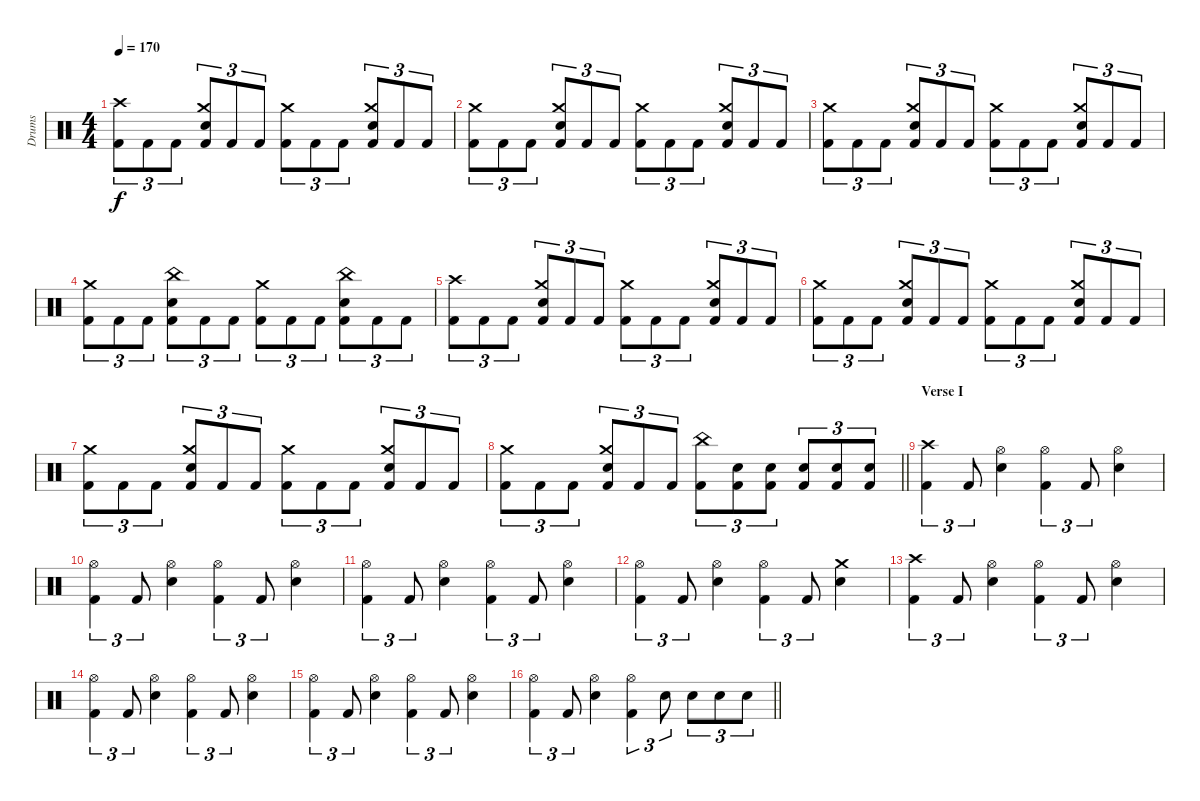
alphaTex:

\track ("Drums" "Drums") {instrument percussion}
\staff {score}
\articulation defaults
\ts (4 4)
\tempo 170
\clef neutral
\ks c
("Crash high (hit)" "Kick (hit) 2").8{tu (3 2) dy f} "Kick (hit) 2".8{tu (3 2)} "Kick (hit) 2".8{tu (3 2)} ("Crash medium (hit)" "Electric Snare (hit)" "Kick (hit) 2").8{tu (3 2)} "Kick (hit) 2".8{tu (3 2)} "Kick (hit) 2".8{tu (3 2)} ("Crash medium (hit)" "Kick (hit) 2").8{tu (3 2)} "Kick (hit) 2".8{tu (3 2)} "Kick (hit) 2".8{tu (3 2)} ("Crash medium (hit)" "Electric Snare (hit)" "Kick (hit) 2").8{tu (3 2)} "Kick (hit) 2".8{tu (3 2)} "Kick (hit) 2".8{tu (3 2)} |
("Crash medium (hit)" "Kick (hit) 2").8{tu (3 2)} "Kick (hit) 2".8{tu (3 2)} "Kick (hit) 2".8{tu (3 2)} ("Crash medium (hit)" "Electric Snare (hit)" "Kick (hit) 2").8{tu (3 2)} "Kick (hit) 2".8{tu (3 2)} "Kick (hit) 2".8{tu (3 2)} ("Crash medium (hit)" "Kick (hit) 2").8{tu (3 2)} "Kick (hit) 2".8{tu (3 2)} "Kick (hit) 2".8{tu (3 2)} ("Crash medium (hit)" "Electric Snare (hit)" "Kick (hit) 2").8{tu (3 2)} "Kick (hit) 2".8{tu (3 2)} "Kick (hit) 2".8{tu (3 2)} |
("Crash medium (hit)" "Kick (hit) 2").8{tu (3 2)} "Kick (hit) 2".8{tu (3 2)} "Kick (hit) 2".8{tu (3 2)} ("Crash medium (hit)" "Electric Snare (hit)" "Kick (hit) 2").8{tu (3 2)} "Kick (hit) 2".8{tu (3 2)} "Kick (hit) 2".8{tu (3 2)} ("Crash medium (hit)" "Kick (hit) 2").8{tu (3 2)} "Kick (hit) 2".8{tu (3 2)} "Kick (hit) 2".8{tu (3 2)} ("Crash medium (hit)" "Electric Snare (hit)" "Kick (hit) 2").8{tu (3 2)} "Kick (hit) 2".8{tu (3 2)} "Kick (hit) 2".8{tu (3 2)} |
("Crash medium (hit)" "Kick (hit) 2").8{tu (3 2)} "Kick (hit) 2".8{tu (3 2)} "Kick (hit) 2".8{tu (3 2)} ("China (hit)" "Electric Snare (hit)" "Kick (hit) 2").8{tu (3 2)} "Kick (hit) 2".8{tu (3 2)} "Kick (hit) 2".8{tu (3 2)} ("Crash medium (hit)" "Kick (hit) 2").8{tu (3 2)} "Kick (hit) 2".8{tu (3 2)} "Kick (hit) 2".8{tu (3 2)} ("China (hit)" "Electric Snare (hit)" "Kick (hit) 2").8{tu (3 2)} "Kick (hit) 2".8{tu (3 2)} "Kick (hit) 2".8{tu (3 2)} |
("Crash high (hit)" "Kick (hit) 2").8{tu (3 2)} "Kick (hit) 2".8{tu (3 2)} "Kick (hit) 2".8{tu (3 2)} ("Crash medium (hit)" "Electric Snare (hit)" "Kick (hit) 2").8{tu (3 2)} "Kick (hit) 2".8{tu (3 2)} "Kick (hit) 2".8{tu (3 2)} ("Crash medium (hit)" "Kick (hit) 2").8{tu (3 2)} "Kick (hit) 2".8{tu (3 2)} "Kick (hit) 2".8{tu (3 2)} ("Crash medium (hit)" "Electric Snare (hit)" "Kick (hit) 2").8{tu (3 2)} "Kick (hit) 2".8{tu (3 2)} "Kick (hit) 2".8{tu (3 2)} |
("Crash medium (hit)" "Kick (hit) 2").8{tu (3 2)} "Kick (hit) 2".8{tu (3 2)} "Kick (hit) 2".8{tu (3 2)} ("Crash medium (hit)" "Electric Snare (hit)" "Kick (hit) 2").8{tu (3 2)} "Kick (hit) 2".8{tu (3 2)} "Kick (hit) 2".8{tu (3 2)} ("Crash medium (hit)" "Kick (hit) 2").8{tu (3 2)} "Kick (hit) 2".8{tu (3 2)} "Kick (hit) 2".8{tu (3 2)} ("Crash medium (hit)" "Electric Snare (hit)" "Kick (hit) 2").8{tu (3 2)} "Kick (hit) 2".8{tu (3 2)} "Kick (hit) 2".8{tu (3 2)} |
("Crash medium (hit)" "Kick (hit) 2").8{tu (3 2)} "Kick (hit) 2".8{tu (3 2)} "Kick (hit) 2".8{tu (3 2)} ("Crash medium (hit)" "Electric Snare (hit)" "Kick (hit) 2").8{tu (3 2)} "Kick (hit) 2".8{tu (3 2)} "Kick (hit) 2".8{tu (3 2)} ("Crash medium (hit)" "Kick (hit) 2").8{tu (3 2)} "Kick (hit) 2".8{tu (3 2)} "Kick (hit) 2".8{tu (3 2)} ("Crash medium (hit)" "Electric Snare (hit)" "Kick (hit) 2").8{tu (3 2)} "Kick (hit) 2".8{tu (3 2)} "Kick (hit) 2".8{tu (3 2)} |
\barLineRight lightlight
("Crash medium (hit)" "Kick (hit) 2").8{tu (3 2)} "Kick (hit) 2".8{tu (3 2)} "Kick (hit) 2".8{tu (3 2)} ("Crash medium (hit)" "Electric Snare (hit)" "Kick (hit) 2").8{tu (3 2)} "Kick (hit) 2".8{tu (3 2)} "Kick (hit) 2".8{tu (3 2)} ("China (hit)" "Kick (hit) 2").8{tu (3 2)} ("Electric Snare (hit)" "Kick (hit) 2").8{tu (3 2)} ("Electric Snare (hit)" "Kick (hit) 2").8{tu (3 2)} ("Electric Snare (hit)" "Kick (hit) 2").8{tu (3 2)} ("Electric Snare (hit)" "Kick (hit) 2").8{tu (3 2)} ("Electric Snare (hit)" "Kick (hit) 2").8{tu (3 2)} |
\section ("" "Verse I")
("Crash high (hit)" "Kick (hit) 2").4{tu (3 2)} "Kick (hit) 2".8{tu (3 2)} ("Hi-Hat (open)" "Electric Snare (hit)").4 ("Hi-Hat (open)" "Kick (hit) 2").4{tu (3 2)} "Kick (hit) 2".8{tu (3 2)} ("Hi-Hat (open)" "Electric Snare (hit)").4 |
("Hi-Hat (open)" "Kick (hit) 2").4{tu (3 2)} "Kick (hit) 2".8{tu (3 2)} ("Hi-Hat (open)" "Electric Snare (hit)").4 ("Hi-Hat (open)" "Kick (hit) 2").4{tu (3 2)} "Kick (hit) 2".8{tu (3 2)} ("Hi-Hat (open)" "Electric Snare (hit)").4 |
("Hi-Hat (open)" "Kick (hit) 2").4{tu (3 2)} "Kick (hit) 2".8{tu (3 2)} ("Hi-Hat (open)" "Electric Snare (hit)").4 ("Hi-Hat (open)" "Kick (hit) 2").4{tu (3 2)} "Kick (hit) 2".8{tu (3 2)} ("Hi-Hat (open)" "Electric Snare (hit)").4 |
("Hi-Hat (open)" "Kick (hit) 2").4{tu (3 2)} "Kick (hit) 2".8{tu (3 2)} ("Hi-Hat (open)" "Electric Snare (hit)").4 ("Hi-Hat (open)" "Kick (hit) 2").4{tu (3 2)} "Kick (hit) 2".8{tu (3 2)} ("Crash medium (hit)" "Electric Snare (hit)").4 |
("Crash high (hit)" "Kick (hit) 2").4{tu (3 2)} "Kick (hit) 2".8{tu (3 2)} ("Hi-Hat (open)" "Electric Snare (hit)").4 ("Hi-Hat (open)" "Kick (hit) 2").4{tu (3 2)} "Kick (hit) 2".8{tu (3 2)} ("Hi-Hat (open)" "Electric Snare (hit)").4 |
("Hi-Hat (open)" "Kick (hit) 2").4{tu (3 2)} "Kick (hit) 2".8{tu (3 2)} ("Hi-Hat (open)" "Electric Snare (hit)").4 ("Hi-Hat (open)" "Kick (hit) 2").4{tu (3 2)} "Kick (hit) 2".8{tu (3 2)} ("Hi-Hat (open)" "Electric Snare (hit)").4 |
("Hi-Hat (open)" "Kick (hit) 2").4{tu (3 2)} "Kick (hit) 2".8{tu (3 2)} ("Hi-Hat (open)" "Electric Snare (hit)").4 ("Hi-Hat (open)" "Kick (hit) 2").4{tu (3 2)} "Kick (hit) 2".8{tu (3 2)} ("Hi-Hat (open)" "Electric Snare (hit)").4 |
\barLineRight lightlight
("Hi-Hat (open)" "Kick (hit) 2").4{tu (3 2)} "Kick (hit) 2".8{tu (3 2)} ("Hi-Hat (open)" "Electric Snare (hit)").4 ("Hi-Hat (open)" "Kick (hit) 2").4{tu (3 2)} "Electric Snare (hit)".8{tu (3 2)} "Electric Snare (hit)".8{tu (3 2)} "Electric Snare (hit)".8{tu (3 2)} "Electric Snare (hit)".8{tu (3 2)}
